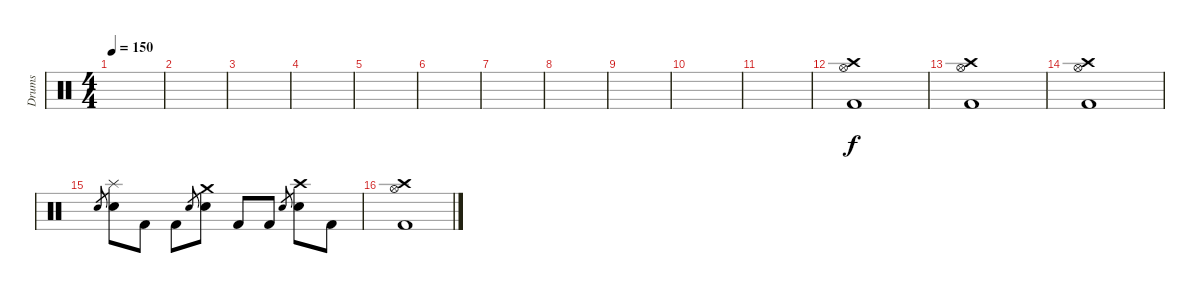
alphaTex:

\track ("Drums" "Drums") {instrument percussion}
\staff {score}
\articulation defaults
\ts (4 4)
\tempo 150
\clef neutral
\ks c
|
|
|
|
|
|
|
|
|
|
|
("Crash high (hit)" "Hi-Hat (open)" "Kick (hit) 2").1 |
("Crash high (hit)" "Hi-Hat (open)" "Kick (hit) 2").1 |
("Crash high (hit)" "Hi-Hat (open)" "Kick (hit) 2").1 |
"Electric Snare (hit)".8{gr} ("Splash (hit)" "Electric Snare (hit)").8 "Kick (hit) 2".8 "Kick (hit) 2".8 "Electric Snare (hit)".8{gr} ("Crash medium (hit)" "Electric Snare (hit)").8 "Kick (hit) 2".8 "Kick (hit) 2".8 "Electric Snare (hit)".8{gr} ("Crash high (hit)" "Electric Snare (hit)").8 "Kick (hit) 2".8 |
("Crash high (hit)" "Hi-Hat (open)" "Kick (hit) 2").1
